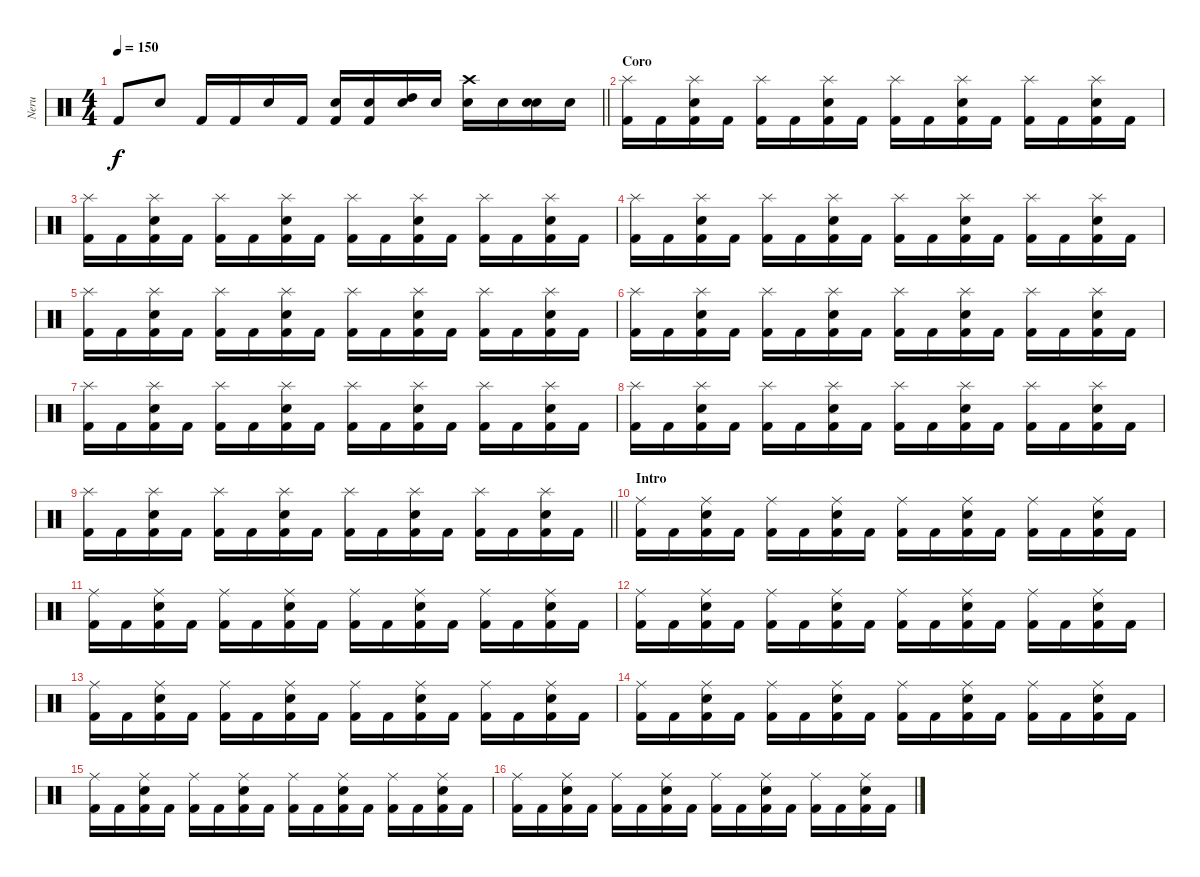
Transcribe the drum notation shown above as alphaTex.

\track ("Neru" "Neru") {instrument percussion}
\staff {score}
\articulation defaults
\ts (4 4)
\tempo 150
\clef neutral
\barLineRight lightlight
\ks c "Kick (hit) 2".8{dy f} "Electric Snare (hit)".8 "Kick (hit) 2".16 "Kick (hit) 2".16 "Electric Snare (hit)".16 "Kick (hit) 2".16
("Snare (hit) 2" "Kick (hit) 2").16 ("Snare (hit) 2" "Kick (hit) 2").16 ("High Tom (hit)" "Electric Snare (hit)").16 "Snare (hit) 2".16 ("Snare (hit) 2" "Crash high (hit)").16 "Snare (hit) 2".16 ("Snare (hit) 2" "Electric Snare (hit)").16 "Snare (hit) 2".16 |
\section ("" "Coro")
("Kick (hit) 2" "Splash (hit)").16 "Kick (hit) 2".16 ("Kick (hit) 2" "Electric Snare (hit)" "Splash (hit)").16 "Kick (hit) 2".16 ("Kick (hit) 2" "Splash (hit)").16 "Kick (hit) 2".16 ("Kick (hit) 2" "Electric Snare (hit)" "Splash (hit)").16 "Kick (hit) 2".16 ("Kick (hit) 2" "Splash (hit)").16 "Kick (hit) 2".16 ("Kick (hit) 2" "Electric Snare (hit)" "Splash (hit)").16 "Kick (hit) 2".16 ("Kick (hit) 2" "Splash (hit)").16 "Kick (hit) 2".16 ("Kick (hit) 2" "Electric Snare (hit)" "Splash (hit)").16 "Kick (hit) 2".16 |
("Kick (hit) 2" "Splash (hit)").16 "Kick (hit) 2".16 ("Kick (hit) 2" "Electric Snare (hit)" "Splash (hit)").16 "Kick (hit) 2".16 ("Kick (hit) 2" "Splash (hit)").16 "Kick (hit) 2".16 ("Kick (hit) 2" "Electric Snare (hit)" "Splash (hit)").16 "Kick (hit) 2".16 ("Kick (hit) 2" "Splash (hit)").16 "Kick (hit) 2".16 ("Kick (hit) 2" "Electric Snare (hit)" "Splash (hit)").16 "Kick (hit) 2".16 ("Kick (hit) 2" "Splash (hit)").16 "Kick (hit) 2".16 ("Kick (hit) 2" "Electric Snare (hit)" "Splash (hit)").16 "Kick (hit) 2".16 |
("Kick (hit) 2" "Splash (hit)").16 "Kick (hit) 2".16 ("Kick (hit) 2" "Electric Snare (hit)" "Splash (hit)").16 "Kick (hit) 2".16 ("Kick (hit) 2" "Splash (hit)").16 "Kick (hit) 2".16 ("Kick (hit) 2" "Electric Snare (hit)" "Splash (hit)").16 "Kick (hit) 2".16 ("Kick (hit) 2" "Splash (hit)").16 "Kick (hit) 2".16 ("Kick (hit) 2" "Electric Snare (hit)" "Splash (hit)").16 "Kick (hit) 2".16 ("Kick (hit) 2" "Splash (hit)").16 "Kick (hit) 2".16 ("Kick (hit) 2" "Electric Snare (hit)" "Splash (hit)").16 "Kick (hit) 2".16 |
("Kick (hit) 2" "Splash (hit)").16 "Kick (hit) 2".16 ("Kick (hit) 2" "Electric Snare (hit)" "Splash (hit)").16 "Kick (hit) 2".16 ("Kick (hit) 2" "Splash (hit)").16 "Kick (hit) 2".16 ("Kick (hit) 2" "Electric Snare (hit)" "Splash (hit)").16 "Kick (hit) 2".16 ("Kick (hit) 2" "Splash (hit)").16 "Kick (hit) 2".16 ("Kick (hit) 2" "Electric Snare (hit)" "Splash (hit)").16 "Kick (hit) 2".16 ("Kick (hit) 2" "Splash (hit)").16 "Kick (hit) 2".16 ("Kick (hit) 2" "Electric Snare (hit)" "Splash (hit)").16 "Kick (hit) 2".16 |
("Kick (hit) 2" "Splash (hit)").16 "Kick (hit) 2".16 ("Kick (hit) 2" "Electric Snare (hit)" "Splash (hit)").16 "Kick (hit) 2".16 ("Kick (hit) 2" "Splash (hit)").16 "Kick (hit) 2".16 ("Kick (hit) 2" "Electric Snare (hit)" "Splash (hit)").16 "Kick (hit) 2".16 ("Kick (hit) 2" "Splash (hit)").16 "Kick (hit) 2".16 ("Kick (hit) 2" "Electric Snare (hit)" "Splash (hit)").16 "Kick (hit) 2".16 ("Kick (hit) 2" "Splash (hit)").16 "Kick (hit) 2".16 ("Kick (hit) 2" "Electric Snare (hit)" "Splash (hit)").16 "Kick (hit) 2".16 |
("Kick (hit) 2" "Splash (hit)").16 "Kick (hit) 2".16 ("Kick (hit) 2" "Electric Snare (hit)" "Splash (hit)").16 "Kick (hit) 2".16 ("Kick (hit) 2" "Splash (hit)").16 "Kick (hit) 2".16 ("Kick (hit) 2" "Electric Snare (hit)" "Splash (hit)").16 "Kick (hit) 2".16 ("Kick (hit) 2" "Splash (hit)").16 "Kick (hit) 2".16 ("Kick (hit) 2" "Electric Snare (hit)" "Splash (hit)").16 "Kick (hit) 2".16 ("Kick (hit) 2" "Splash (hit)").16 "Kick (hit) 2".16 ("Kick (hit) 2" "Electric Snare (hit)" "Splash (hit)").16 "Kick (hit) 2".16 |
("Kick (hit) 2" "Splash (hit)").16 "Kick (hit) 2".16 ("Kick (hit) 2" "Electric Snare (hit)" "Splash (hit)").16 "Kick (hit) 2".16 ("Kick (hit) 2" "Splash (hit)").16 "Kick (hit) 2".16 ("Kick (hit) 2" "Electric Snare (hit)" "Splash (hit)").16 "Kick (hit) 2".16 ("Kick (hit) 2" "Splash (hit)").16 "Kick (hit) 2".16 ("Kick (hit) 2" "Electric Snare (hit)" "Splash (hit)").16 "Kick (hit) 2".16 ("Kick (hit) 2" "Splash (hit)").16 "Kick (hit) 2".16 ("Kick (hit) 2" "Electric Snare (hit)" "Splash (hit)").16 "Kick (hit) 2".16 |
\barLineRight lightlight
("Kick (hit) 2" "Splash (hit)").16 "Kick (hit) 2".16 ("Kick (hit) 2" "Electric Snare (hit)" "Splash (hit)").16 "Kick (hit) 2".16 ("Kick (hit) 2" "Splash (hit)").16 "Kick (hit) 2".16 ("Kick (hit) 2" "Electric Snare (hit)" "Splash (hit)").16 "Kick (hit) 2".16 ("Kick (hit) 2" "Splash (hit)").16 "Kick (hit) 2".16 ("Kick (hit) 2" "Electric Snare (hit)" "Splash (hit)").16 "Kick (hit) 2".16 ("Kick (hit) 2" "Splash (hit)").16 "Kick (hit) 2".16 ("Kick (hit) 2" "Electric Snare (hit)" "Splash (hit)").16 "Kick (hit) 2".16 |
\section ("" "Intro")
("Kick (hit) 2" "Ride (middle)").16 "Kick (hit) 2".16 ("Kick (hit) 2" "Electric Snare (hit)" "Ride (middle)").16 "Kick (hit) 2".16 ("Kick (hit) 2" "Ride (middle)").16 "Kick (hit) 2".16 ("Kick (hit) 2" "Electric Snare (hit)" "Ride (middle)").16 "Kick (hit) 2".16 ("Kick (hit) 2" "Ride (middle)").16 "Kick (hit) 2".16 ("Kick (hit) 2" "Electric Snare (hit)" "Ride (middle)").16 "Kick (hit) 2".16 ("Kick (hit) 2" "Ride (middle)").16 "Kick (hit) 2".16 ("Kick (hit) 2" "Electric Snare (hit)" "Ride (middle)").16 "Kick (hit) 2".16 |
("Kick (hit) 2" "Ride (middle)").16 "Kick (hit) 2".16 ("Kick (hit) 2" "Electric Snare (hit)" "Ride (middle)").16 "Kick (hit) 2".16 ("Kick (hit) 2" "Ride (middle)").16 "Kick (hit) 2".16 ("Kick (hit) 2" "Electric Snare (hit)" "Ride (middle)").16 "Kick (hit) 2".16 ("Kick (hit) 2" "Ride (middle)").16 "Kick (hit) 2".16 ("Kick (hit) 2" "Electric Snare (hit)" "Ride (middle)").16 "Kick (hit) 2".16 ("Kick (hit) 2" "Ride (middle)").16 "Kick (hit) 2".16 ("Kick (hit) 2" "Electric Snare (hit)" "Ride (middle)").16 "Kick (hit) 2".16 |
("Kick (hit) 2" "Ride (middle)").16 "Kick (hit) 2".16 ("Kick (hit) 2" "Electric Snare (hit)" "Ride (middle)").16 "Kick (hit) 2".16 ("Kick (hit) 2" "Ride (middle)").16 "Kick (hit) 2".16 ("Kick (hit) 2" "Electric Snare (hit)" "Ride (middle)").16 "Kick (hit) 2".16 ("Kick (hit) 2" "Ride (middle)").16 "Kick (hit) 2".16 ("Kick (hit) 2" "Electric Snare (hit)" "Ride (middle)").16 "Kick (hit) 2".16 ("Kick (hit) 2" "Ride (middle)").16 "Kick (hit) 2".16 ("Kick (hit) 2" "Electric Snare (hit)" "Ride (middle)").16 "Kick (hit) 2".16 |
("Kick (hit) 2" "Ride (middle)").16 "Kick (hit) 2".16 ("Kick (hit) 2" "Electric Snare (hit)" "Ride (middle)").16 "Kick (hit) 2".16 ("Kick (hit) 2" "Ride (middle)").16 "Kick (hit) 2".16 ("Kick (hit) 2" "Electric Snare (hit)" "Ride (middle)").16 "Kick (hit) 2".16 ("Kick (hit) 2" "Ride (middle)").16 "Kick (hit) 2".16 ("Kick (hit) 2" "Electric Snare (hit)" "Ride (middle)").16 "Kick (hit) 2".16 ("Kick (hit) 2" "Ride (middle)").16 "Kick (hit) 2".16 ("Kick (hit) 2" "Electric Snare (hit)" "Ride (middle)").16 "Kick (hit) 2".16 |
("Kick (hit) 2" "Ride (middle)").16 "Kick (hit) 2".16 ("Kick (hit) 2" "Electric Snare (hit)" "Ride (middle)").16 "Kick (hit) 2".16 ("Kick (hit) 2" "Ride (middle)").16 "Kick (hit) 2".16 ("Kick (hit) 2" "Electric Snare (hit)" "Ride (middle)").16 "Kick (hit) 2".16 ("Kick (hit) 2" "Ride (middle)").16 "Kick (hit) 2".16 ("Kick (hit) 2" "Electric Snare (hit)" "Ride (middle)").16 "Kick (hit) 2".16 ("Kick (hit) 2" "Ride (middle)").16 "Kick (hit) 2".16 ("Kick (hit) 2" "Electric Snare (hit)" "Ride (middle)").16 "Kick (hit) 2".16 |
("Kick (hit) 2" "Ride (middle)").16 "Kick (hit) 2".16 ("Kick (hit) 2" "Electric Snare (hit)" "Ride (middle)").16 "Kick (hit) 2".16 ("Kick (hit) 2" "Ride (middle)").16 "Kick (hit) 2".16 ("Kick (hit) 2" "Electric Snare (hit)" "Ride (middle)").16 "Kick (hit) 2".16 ("Kick (hit) 2" "Ride (middle)").16 "Kick (hit) 2".16 ("Kick (hit) 2" "Electric Snare (hit)" "Ride (middle)").16 "Kick (hit) 2".16 ("Kick (hit) 2" "Ride (middle)").16 "Kick (hit) 2".16 ("Kick (hit) 2" "Electric Snare (hit)" "Ride (middle)").16 "Kick (hit) 2".16 |
("Kick (hit) 2" "Ride (middle)").16 "Kick (hit) 2".16 ("Kick (hit) 2" "Electric Snare (hit)" "Ride (middle)").16 "Kick (hit) 2".16 ("Kick (hit) 2" "Ride (middle)").16 "Kick (hit) 2".16 ("Kick (hit) 2" "Electric Snare (hit)" "Ride (middle)").16 "Kick (hit) 2".16 ("Kick (hit) 2" "Ride (middle)").16 "Kick (hit) 2".16 ("Kick (hit) 2" "Electric Snare (hit)" "Ride (middle)").16 "Kick (hit) 2".16 ("Kick (hit) 2" "Ride (middle)").16 "Kick (hit) 2".16 ("Kick (hit) 2" "Electric Snare (hit)" "Ride (middle)").16 "Kick (hit) 2".16
